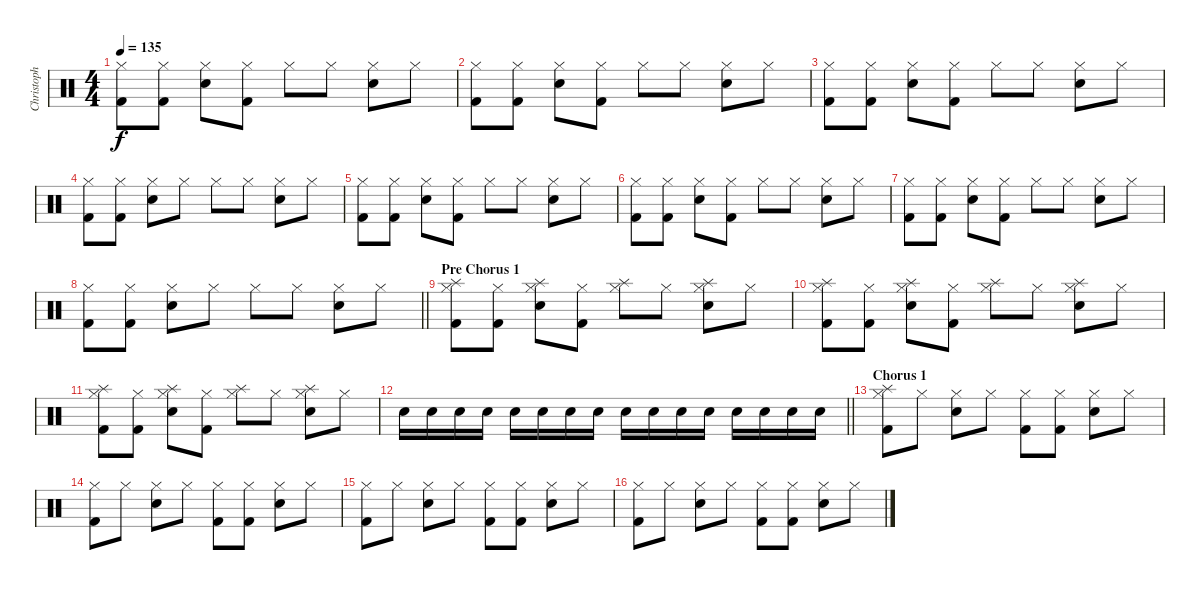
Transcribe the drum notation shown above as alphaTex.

\track ("Christoph Schneider" "Christoph ") {instrument percussion}
\staff {score}
\articulation defaults
\ts (4 4)
\tempo 135
\clef neutral
\ks c
("Hi-Hat (closed)" "Kick (hit) 2").8{dy f} ("Hi-Hat (closed)" "Kick (hit) 2").8 ("Hi-Hat (closed)" "Electric Snare (hit)").8 ("Hi-Hat (closed)" "Kick (hit) 2").8 "Hi-Hat (closed)".8 "Hi-Hat (closed)".8 ("Hi-Hat (closed)" "Electric Snare (hit)").8 "Hi-Hat (closed)".8 |
("Hi-Hat (closed)" "Kick (hit) 2").8 ("Hi-Hat (closed)" "Kick (hit) 2").8 ("Hi-Hat (closed)" "Electric Snare (hit)").8 ("Hi-Hat (closed)" "Kick (hit) 2").8 "Hi-Hat (closed)".8 "Hi-Hat (closed)".8 ("Hi-Hat (closed)" "Electric Snare (hit)").8 "Hi-Hat (closed)".8 |
("Hi-Hat (closed)" "Kick (hit) 2").8 ("Hi-Hat (closed)" "Kick (hit) 2").8 ("Hi-Hat (closed)" "Electric Snare (hit)").8 ("Hi-Hat (closed)" "Kick (hit) 2").8 "Hi-Hat (closed)".8 "Hi-Hat (closed)".8 ("Hi-Hat (closed)" "Electric Snare (hit)").8 "Hi-Hat (closed)".8 |
("Hi-Hat (closed)" "Kick (hit) 2").8 ("Hi-Hat (closed)" "Kick (hit) 2").8 ("Hi-Hat (closed)" "Electric Snare (hit)").8 "Hi-Hat (closed)".8 "Hi-Hat (closed)".8 "Hi-Hat (closed)".8 ("Hi-Hat (closed)" "Electric Snare (hit)").8 "Hi-Hat (closed)".8 |
("Hi-Hat (closed)" "Kick (hit) 2").8 ("Hi-Hat (closed)" "Kick (hit) 2").8 ("Hi-Hat (closed)" "Electric Snare (hit)").8 ("Hi-Hat (closed)" "Kick (hit) 2").8 "Hi-Hat (closed)".8 "Hi-Hat (closed)".8 ("Hi-Hat (closed)" "Electric Snare (hit)").8 "Hi-Hat (closed)".8 |
("Hi-Hat (closed)" "Kick (hit) 2").8 ("Hi-Hat (closed)" "Kick (hit) 2").8 ("Hi-Hat (closed)" "Electric Snare (hit)").8 ("Hi-Hat (closed)" "Kick (hit) 2").8 "Hi-Hat (closed)".8 "Hi-Hat (closed)".8 ("Hi-Hat (closed)" "Electric Snare (hit)").8 "Hi-Hat (closed)".8 |
("Hi-Hat (closed)" "Kick (hit) 2").8 ("Hi-Hat (closed)" "Kick (hit) 2").8 ("Hi-Hat (closed)" "Electric Snare (hit)").8 ("Hi-Hat (closed)" "Kick (hit) 2").8 "Hi-Hat (closed)".8 "Hi-Hat (closed)".8 ("Hi-Hat (closed)" "Electric Snare (hit)").8 "Hi-Hat (closed)".8 |
\barLineRight lightlight
("Hi-Hat (closed)" "Kick (hit) 2").8 ("Hi-Hat (closed)" "Kick (hit) 2").8 ("Hi-Hat (closed)" "Electric Snare (hit)").8 "Hi-Hat (closed)".8 "Hi-Hat (closed)".8 "Hi-Hat (closed)".8 ("Hi-Hat (closed)" "Electric Snare (hit)").8 "Hi-Hat (closed)".8 |
\section ("" "Pre Chorus 1")
("Splash (hit)" "Hi-Hat (closed)" "Kick (hit) 2").8 ("Hi-Hat (closed)" "Kick (hit) 2").8 ("Splash (hit)" "Hi-Hat (closed)" "Electric Snare (hit)").8 ("Hi-Hat (closed)" "Kick (hit) 2").8 ("Splash (hit)" "Hi-Hat (closed)").8 "Hi-Hat (closed)".8 ("Splash (hit)" "Hi-Hat (closed)" "Electric Snare (hit)").8 "Hi-Hat (closed)".8 |
("Splash (hit)" "Hi-Hat (closed)" "Kick (hit) 2").8 ("Hi-Hat (closed)" "Kick (hit) 2").8 ("Splash (hit)" "Hi-Hat (closed)" "Electric Snare (hit)").8 ("Hi-Hat (closed)" "Kick (hit) 2").8 ("Splash (hit)" "Hi-Hat (closed)").8 "Hi-Hat (closed)".8 ("Splash (hit)" "Hi-Hat (closed)" "Electric Snare (hit)").8 "Hi-Hat (closed)".8 |
("Splash (hit)" "Hi-Hat (closed)" "Kick (hit) 2").8 ("Hi-Hat (closed)" "Kick (hit) 2").8 ("Splash (hit)" "Hi-Hat (closed)" "Electric Snare (hit)").8 ("Hi-Hat (closed)" "Kick (hit) 2").8 ("Splash (hit)" "Hi-Hat (closed)").8 "Hi-Hat (closed)".8 ("Splash (hit)" "Hi-Hat (closed)" "Electric Snare (hit)").8 "Hi-Hat (closed)".8 |
\barLineRight lightlight "Electric Snare (hit)".16 "Electric Snare (hit)".16 "Electric Snare (hit)".16 "Electric Snare (hit)".16 "Electric Snare (hit)".16 "Electric Snare (hit)".16 "Electric Snare (hit)".16 "Electric Snare (hit)".16 "Electric Snare (hit)".16 "Electric Snare (hit)".16 "Electric Snare (hit)".16 "Electric Snare (hit)".16 "Electric Snare (hit)".16 "Electric Snare (hit)".16 "Electric Snare (hit)".16 "Electric Snare (hit)".16
|
\section ("" "Chorus 1")
("Splash (hit)" "Hi-Hat (closed)" "Kick (hit) 2").8 "Hi-Hat (closed)".8 ("Hi-Hat (closed)" "Electric Snare (hit)").8 "Hi-Hat (closed)".8 ("Hi-Hat (closed)" "Kick (hit) 2").8 ("Hi-Hat (closed)" "Kick (hit) 2").8 ("Hi-Hat (closed)" "Electric Snare (hit)").8 "Hi-Hat (closed)".8 |
("Hi-Hat (closed)" "Kick (hit) 2").8 "Hi-Hat (closed)".8 ("Hi-Hat (closed)" "Electric Snare (hit)").8 "Hi-Hat (closed)".8 ("Hi-Hat (closed)" "Kick (hit) 2").8 ("Hi-Hat (closed)" "Kick (hit) 2").8 ("Hi-Hat (closed)" "Electric Snare (hit)").8 "Hi-Hat (closed)".8 |
("Hi-Hat (closed)" "Kick (hit) 2").8 "Hi-Hat (closed)".8 ("Hi-Hat (closed)" "Electric Snare (hit)").8 "Hi-Hat (closed)".8 ("Hi-Hat (closed)" "Kick (hit) 2").8 ("Hi-Hat (closed)" "Kick (hit) 2").8 ("Hi-Hat (closed)" "Electric Snare (hit)").8 "Hi-Hat (closed)".8 |
("Hi-Hat (closed)" "Kick (hit) 2").8 "Hi-Hat (closed)".8 ("Hi-Hat (closed)" "Electric Snare (hit)").8 "Hi-Hat (closed)".8 ("Hi-Hat (closed)" "Kick (hit) 2").8 ("Hi-Hat (closed)" "Kick (hit) 2").8 ("Hi-Hat (closed)" "Electric Snare (hit)").8 "Hi-Hat (closed)".8
